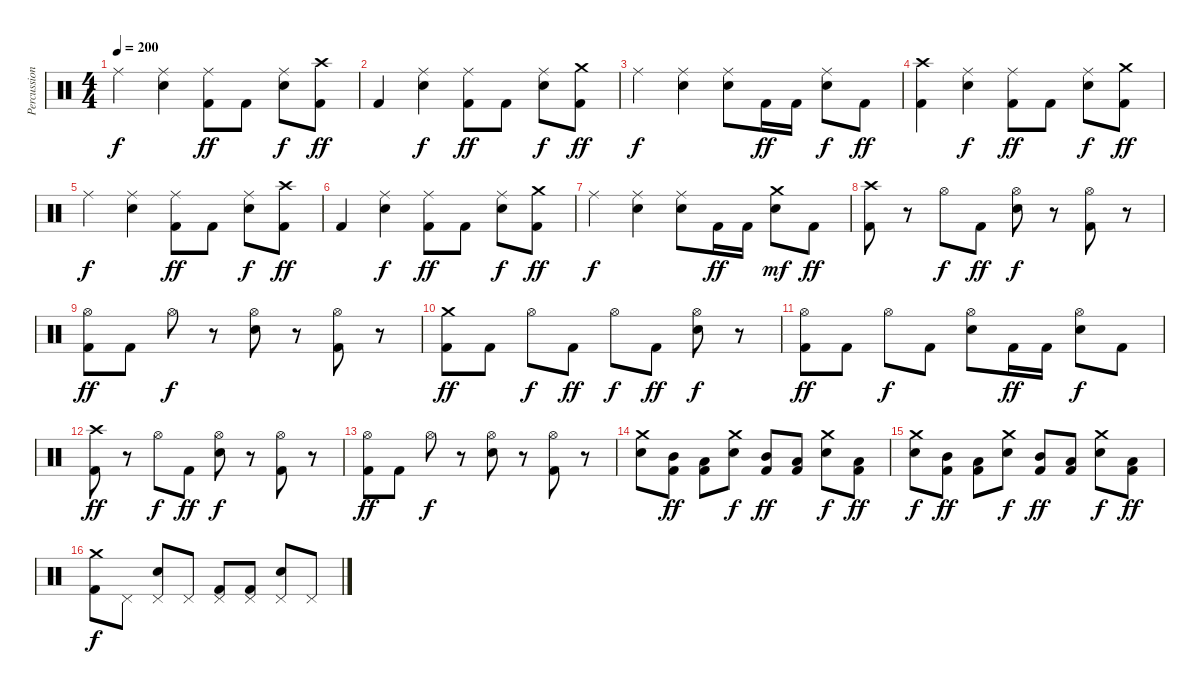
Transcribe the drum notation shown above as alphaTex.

\track ("Percussion" "Percussion") {instrument percussion}
\staff {score}
\articulation defaults
\ts (4 4)
\tempo 200
\clef neutral
\ks c "Ride (middle)".4{dy f}
("Ride (middle)" "Snare (hit) 2").4 ("Ride (middle)" "Kick (hit) 2").8{dy ff} "Kick (hit) 2".8 ("Ride (middle)" "Snare (hit) 2").8{dy f} ("Crash high (hit)" "Kick (hit) 2").8{dy ff} |
"Kick (hit) 2".4 ("Ride (middle)" "Snare (hit) 2").4{dy f} ("Ride (middle)" "Kick (hit) 2").8{dy ff} "Kick (hit) 2".8 ("Ride (middle)" "Snare (hit) 2").8{dy f} ("Crash medium (hit)" "Kick (hit) 2").8{dy ff} |
"Ride (middle)".4{dy f} ("Ride (middle)" "Snare (hit) 2").4 ("Ride (middle)" "Snare (hit) 2").8 "Kick (hit) 2".16{dy ff} "Kick (hit) 2".16 ("Ride (middle)" "Snare (hit) 2").8{dy f} "Kick (hit) 2".8{dy ff} |
("Crash high (hit)" "Kick (hit) 2").4 ("Ride (middle)" "Snare (hit) 2").4{dy f} ("Ride (middle)" "Kick (hit) 2").8{dy ff} "Kick (hit) 2".8 ("Ride (middle)" "Snare (hit) 2").8{dy f} ("Crash medium (hit)" "Kick (hit) 2").8{dy ff} |
"Ride (middle)".4{dy f} ("Ride (middle)" "Snare (hit) 2").4 ("Ride (middle)" "Kick (hit) 2").8{dy ff} "Kick (hit) 2".8 ("Ride (middle)" "Snare (hit) 2").8{dy f} ("Crash high (hit)" "Kick (hit) 2").8{dy ff} |
"Kick (hit) 2".4 ("Ride (middle)" "Snare (hit) 2").4{dy f} ("Ride (middle)" "Kick (hit) 2").8{dy ff} "Kick (hit) 2".8 ("Ride (middle)" "Snare (hit) 2").8{dy f} ("Crash medium (hit)" "Kick (hit) 2").8{dy ff} |
"Ride (middle)".4{dy f} ("Ride (middle)" "Snare (hit) 2").4 ("Ride (middle)" "Snare (hit) 2").8 "Kick (hit) 2".16{dy ff} "Kick (hit) 2".16 ("Crash medium (hit)" "Snare (hit) 2").8{dy mf} "Kick (hit) 2".8{dy ff} |
("Crash high (hit)" "Kick (hit) 2").8 r.8 "Hi-Hat (open)".8{dy f} "Kick (hit) 2".8{dy ff} ("Hi-Hat (open)" "Snare (hit) 2").8{dy f} r.8 ("Hi-Hat (open)" "Kick (hit) 2").8 r.8 |
("Hi-Hat (open)" "Kick (hit) 2").8{dy ff} "Kick (hit) 2".8 "Hi-Hat (open)".8{dy f} r.8 ("Hi-Hat (open)" "Snare (hit) 2").8 r.8 ("Hi-Hat (open)" "Kick (hit) 2").8 r.8 |
("Crash medium (hit)" "Kick (hit) 2").8{dy ff} "Kick (hit) 2".8 "Hi-Hat (open)".8{dy f} "Kick (hit) 2".8{dy ff} "Hi-Hat (open)".8{dy f} "Kick (hit) 2".8{dy ff} ("Hi-Hat (open)" "Snare (hit) 2").8{dy f} r.8 |
("Hi-Hat (open)" "Kick (hit) 2").8{dy ff} "Kick (hit) 2".8 "Hi-Hat (open)".8{dy f} "Kick (hit) 2".8 ("Hi-Hat (open)" "Snare (hit) 2").8 "Kick (hit) 2".16{dy ff} "Kick (hit) 2".16 ("Hi-Hat (open)" "Snare (hit) 2").8{dy f} "Kick (hit) 2".8 |
("Crash high (hit)" "Kick (hit) 2").8{dy ff} r.8 "Hi-Hat (open)".8{dy f} "Kick (hit) 2".8{dy ff} ("Hi-Hat (open)" "Snare (hit) 2").8{dy f} r.8 ("Hi-Hat (open)" "Kick (hit) 2").8 r.8 |
("Hi-Hat (open)" "Kick (hit) 2").8{dy ff} "Kick (hit) 2".8 "Hi-Hat (open)".8{dy f} r.8 ("Hi-Hat (open)" "Snare (hit) 2").8 r.8 ("Hi-Hat (open)" "Kick (hit) 2").8 r.8 |
("Crash medium (hit)" "Snare (hit) 2").8 ("Mid Tom (hit)" "Kick (hit) 2").8{dy ff} ("Low Tom (hit)" "Kick (hit) 2").8 ("Crash medium (hit)" "Snare (hit) 2").8{dy f} ("Mid Tom (hit)" "Kick (hit) 2").8{dy ff} ("Low Tom (hit)" "Kick (hit) 2").8 ("Crash medium (hit)" "Snare (hit) 2").8{dy f} ("Low Tom (hit)" "Kick (hit) 2").8{dy ff} |
("Crash medium (hit)" "Snare (hit) 2").8{dy f} ("Mid Tom (hit)" "Kick (hit) 2").8{dy ff} ("Low Tom (hit)" "Kick (hit) 2").8 ("Crash medium (hit)" "Snare (hit) 2").8{dy f} ("Mid Tom (hit)" "Kick (hit) 2").8{dy ff} ("Low Tom (hit)" "Kick (hit) 2").8 ("Crash medium (hit)" "Snare (hit) 2").8{dy f} ("Low Tom (hit)" "Kick (hit) 2").8{dy ff} |
("Crash medium (hit)" "Kick (hit) 2").8{dy f} "Pedal Hi-Hat (hit)".8 ("Pedal Hi-Hat (hit)" "Snare (hit) 2").8 "Pedal Hi-Hat (hit)".8 ("Pedal Hi-Hat (hit)" "Kick (hit) 2").8 ("Pedal Hi-Hat (hit)" "Kick (hit) 2").8 ("Pedal Hi-Hat (hit)" "Snare (hit) 2").8 "Pedal Hi-Hat (hit)".8
